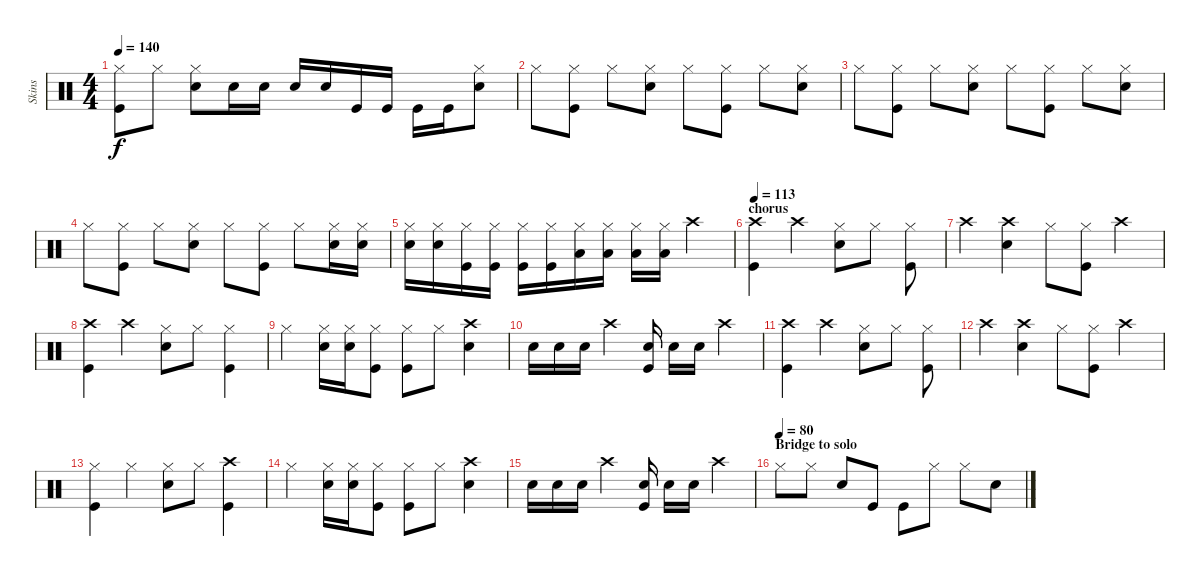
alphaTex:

\track ("Skins" "Skins") {instrument percussion}
\staff {score}
\articulation defaults
\ts (4 4)
\tempo 140
\clef neutral
\ks c
("Hi-Hat (closed)" "Kick (hit)").8{dy f} "Hi-Hat (closed)".8 ("Hi-Hat (closed)" "Snare (hit) 2").8 "Snare (hit) 2".16 "Snare (hit) 2".16 "Snare (hit) 2".16 "Snare (hit) 2".16 "Kick (hit)".16 "Kick (hit)".16 "Kick (hit)".16 "Kick (hit)".16 ("Hi-Hat (closed)" "Snare (hit) 2").8 |
"Hi-Hat (closed)".8 ("Hi-Hat (closed)" "Kick (hit)").8 "Hi-Hat (closed)".8 ("Hi-Hat (closed)" "Snare (hit) 2").8 "Hi-Hat (closed)".8 ("Hi-Hat (closed)" "Kick (hit)").8 "Hi-Hat (closed)".8 ("Hi-Hat (closed)" "Snare (hit) 2").8 |
"Hi-Hat (closed)".8 ("Hi-Hat (closed)" "Kick (hit)").8 "Hi-Hat (closed)".8 ("Hi-Hat (closed)" "Snare (hit) 2").8 "Hi-Hat (closed)".8 ("Hi-Hat (closed)" "Kick (hit)").8 "Hi-Hat (closed)".8 ("Hi-Hat (closed)" "Snare (hit) 2").8 |
"Hi-Hat (closed)".8 ("Hi-Hat (closed)" "Kick (hit)").8 "Hi-Hat (closed)".8 ("Hi-Hat (closed)" "Snare (hit) 2").8 "Hi-Hat (closed)".8 ("Hi-Hat (closed)" "Kick (hit)").8 "Hi-Hat (closed)".8 ("Hi-Hat (closed)" "Snare (hit) 2").16 ("Hi-Hat (closed)" "Snare (hit) 2").16 |
("Hi-Hat (closed)" "Snare (hit) 2").16 ("Hi-Hat (closed)" "Snare (hit) 2").16 ("Hi-Hat (closed)" "Kick (hit)").16 ("Hi-Hat (closed)" "Kick (hit)").16 ("Hi-Hat (closed)" "Kick (hit)").16 ("Hi-Hat (closed)" "Kick (hit)").16 ("Hi-Hat (closed)" "Low Tom (hit)").16 ("Hi-Hat (closed)" "Low Tom (hit)").16 ("Hi-Hat (closed)" "Low Tom (hit)").16 ("Hi-Hat (closed)" "Low Tom (hit)").16 "Crash high (hit)".4 |
\section ("" "chorus")
\tempo 113
("Crash high (hit)" "Kick (hit)").4 "Crash high (hit)".4 ("Hi-Hat (closed)" "Snare (hit) 2").8 "Hi-Hat (closed)".8 ("Hi-Hat (closed)" "Kick (hit)").8 |
"Crash high (hit)".4 ("Crash high (hit)" "Snare (hit) 2").4 "Hi-Hat (closed)".8 ("Hi-Hat (closed)" "Kick (hit)").8 "Crash high (hit)".4 |
("Crash high (hit)" "Kick (hit)").4 "Crash high (hit)".4 ("Hi-Hat (closed)" "Snare (hit) 2").8 "Hi-Hat (closed)".8 ("Hi-Hat (closed)" "Kick (hit)").4 |
"Hi-Hat (closed)".4 ("Hi-Hat (closed)" "Snare (hit) 2").16 ("Hi-Hat (closed)" "Snare (hit) 2").16 ("Hi-Hat (closed)" "Kick (hit)").8 ("Hi-Hat (closed)" "Kick (hit)").8 "Hi-Hat (closed)".8 ("Crash high (hit)" "Snare (hit) 2").4 |
"Snare (hit) 2".16 "Snare (hit) 2".16 "Snare (hit) 2".16 "Crash high (hit)".4 ("Snare (hit) 2" "Kick (hit)").16 "Snare (hit) 2".16 "Snare (hit) 2".16 "Crash high (hit)".4 |
("Crash high (hit)" "Kick (hit)").4 "Crash high (hit)".4 ("Hi-Hat (closed)" "Snare (hit) 2").8 "Hi-Hat (closed)".8 ("Hi-Hat (closed)" "Kick (hit)").8 |
"Crash high (hit)".4 ("Crash high (hit)" "Snare (hit) 2").4 "Hi-Hat (closed)".8 ("Hi-Hat (closed)" "Kick (hit)").8 "Crash high (hit)".4 |
("Hi-Hat (closed)" "Kick (hit)").4 "Hi-Hat (closed)".4 ("Hi-Hat (closed)" "Snare (hit) 2").8 "Hi-Hat (closed)".8 ("Crash high (hit)" "Kick (hit)").4 |
"Hi-Hat (closed)".4 ("Hi-Hat (closed)" "Snare (hit) 2").16 ("Hi-Hat (closed)" "Snare (hit) 2").16 ("Hi-Hat (closed)" "Kick (hit)").8 ("Hi-Hat (closed)" "Kick (hit)").8 "Hi-Hat (closed)".8 ("Crash high (hit)" "Snare (hit) 2").4 |
"Snare (hit) 2".16 "Snare (hit) 2".16 "Snare (hit) 2".16 "Crash high (hit)".4 ("Snare (hit) 2" "Kick (hit)").16 "Snare (hit) 2".16 "Snare (hit) 2".16 "Crash high (hit)".4 |
\section ("" "Bridge to solo")
\tempo (80)
"Hi-Hat (closed)".8 "Hi-Hat (closed)".8 "Snare (hit) 2".8 "Kick (hit)".8 "Kick (hit)".8 "Hi-Hat (closed)".8 "Hi-Hat (closed)".8 "Snare (hit) 2".8
